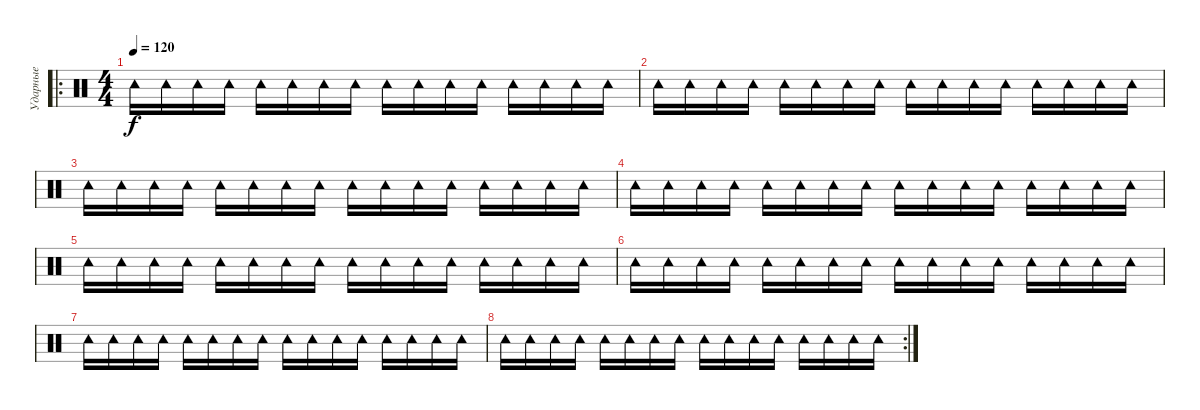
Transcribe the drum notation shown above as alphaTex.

\track ("Ударные" "Ударные") {instrument percussion}
\staff {score}
\articulation defaults
\ro
\ts (4 4)
\tempo 120
\clef neutral
\ks c "Tambourine (hit)".16{dy f} "Tambourine (hit)".16 "Tambourine (hit)".16 "Tambourine (hit)".16 "Tambourine (hit)".16 "Tambourine (hit)".16 "Tambourine (hit)".16 "Tambourine (hit)".16 "Tambourine (hit)".16 "Tambourine (hit)".16 "Tambourine (hit)".16 "Tambourine (hit)".16 "Tambourine (hit)".16 "Tambourine (hit)".16 "Tambourine (hit)".16 "Tambourine (hit)".16
|
"Tambourine (hit)".16 "Tambourine (hit)".16 "Tambourine (hit)".16 "Tambourine (hit)".16 "Tambourine (hit)".16 "Tambourine (hit)".16 "Tambourine (hit)".16 "Tambourine (hit)".16 "Tambourine (hit)".16 "Tambourine (hit)".16 "Tambourine (hit)".16 "Tambourine (hit)".16 "Tambourine (hit)".16 "Tambourine (hit)".16 "Tambourine (hit)".16 "Tambourine (hit)".16 |
"Tambourine (hit)".16 "Tambourine (hit)".16 "Tambourine (hit)".16 "Tambourine (hit)".16 "Tambourine (hit)".16 "Tambourine (hit)".16 "Tambourine (hit)".16 "Tambourine (hit)".16 "Tambourine (hit)".16 "Tambourine (hit)".16 "Tambourine (hit)".16 "Tambourine (hit)".16 "Tambourine (hit)".16 "Tambourine (hit)".16 "Tambourine (hit)".16 "Tambourine (hit)".16 |
"Tambourine (hit)".16 "Tambourine (hit)".16 "Tambourine (hit)".16 "Tambourine (hit)".16 "Tambourine (hit)".16 "Tambourine (hit)".16 "Tambourine (hit)".16 "Tambourine (hit)".16 "Tambourine (hit)".16 "Tambourine (hit)".16 "Tambourine (hit)".16 "Tambourine (hit)".16 "Tambourine (hit)".16 "Tambourine (hit)".16 "Tambourine (hit)".16 "Tambourine (hit)".16 |
"Tambourine (hit)".16 "Tambourine (hit)".16 "Tambourine (hit)".16 "Tambourine (hit)".16 "Tambourine (hit)".16 "Tambourine (hit)".16 "Tambourine (hit)".16 "Tambourine (hit)".16 "Tambourine (hit)".16 "Tambourine (hit)".16 "Tambourine (hit)".16 "Tambourine (hit)".16 "Tambourine (hit)".16 "Tambourine (hit)".16 "Tambourine (hit)".16 "Tambourine (hit)".16 |
"Tambourine (hit)".16 "Tambourine (hit)".16 "Tambourine (hit)".16 "Tambourine (hit)".16 "Tambourine (hit)".16 "Tambourine (hit)".16 "Tambourine (hit)".16 "Tambourine (hit)".16 "Tambourine (hit)".16 "Tambourine (hit)".16 "Tambourine (hit)".16 "Tambourine (hit)".16 "Tambourine (hit)".16 "Tambourine (hit)".16 "Tambourine (hit)".16 "Tambourine (hit)".16 |
"Tambourine (hit)".16 "Tambourine (hit)".16 "Tambourine (hit)".16 "Tambourine (hit)".16 "Tambourine (hit)".16 "Tambourine (hit)".16 "Tambourine (hit)".16 "Tambourine (hit)".16 "Tambourine (hit)".16 "Tambourine (hit)".16 "Tambourine (hit)".16 "Tambourine (hit)".16 "Tambourine (hit)".16 "Tambourine (hit)".16 "Tambourine (hit)".16 "Tambourine (hit)".16 |
\rc 2 "Tambourine (hit)".16 "Tambourine (hit)".16 "Tambourine (hit)".16 "Tambourine (hit)".16 "Tambourine (hit)".16 "Tambourine (hit)".16 "Tambourine (hit)".16 "Tambourine (hit)".16 "Tambourine (hit)".16 "Tambourine (hit)".16 "Tambourine (hit)".16 "Tambourine (hit)".16 "Tambourine (hit)".16 "Tambourine (hit)".16 "Tambourine (hit)".16 "Tambourine (hit)".16
